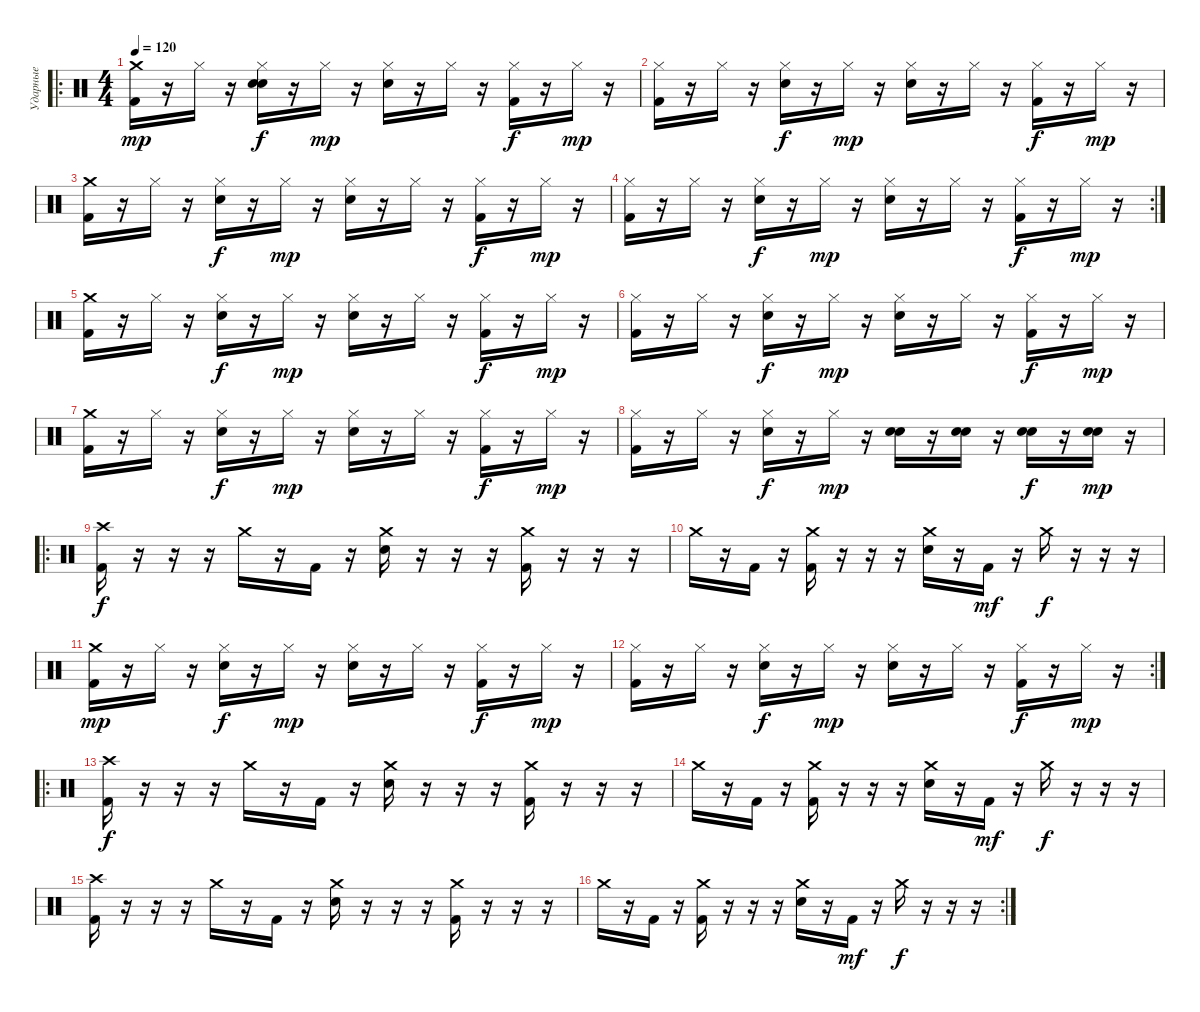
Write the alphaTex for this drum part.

\track ("Ударные" "Ударные") {instrument percussion}
\staff {score}
\articulation defaults
\ro
\ts (4 4)
\tempo 120
\clef neutral
\ks c
("Crash medium (hit)" "Kick (hit) 2").16{dy mp} r.16 "Hi-Hat (closed)".16 r.16 ("Hi-Hat (closed)" "Electric Snare (hit)" "Electric Snare (hit)").16{dy f} r.16 "Hi-Hat (closed)".16{dy mp} r.16 ("Hi-Hat (closed)" "Electric Snare (hit)").16 r.16 "Hi-Hat (closed)".16 r.16 ("Hi-Hat (closed)" "Kick (hit) 2").16{dy f} r.16 "Hi-Hat (closed)".16{dy mp} r.16 |
("Hi-Hat (closed)" "Kick (hit) 2").16 r.16 "Hi-Hat (closed)".16 r.16 ("Hi-Hat (closed)" "Electric Snare (hit)").16{dy f} r.16 "Hi-Hat (closed)".16{dy mp} r.16 ("Hi-Hat (closed)" "Electric Snare (hit)").16 r.16 "Hi-Hat (closed)".16 r.16 ("Hi-Hat (closed)" "Kick (hit) 2").16{dy f} r.16 "Hi-Hat (closed)".16{dy mp} r.16 |
("Crash medium (hit)" "Kick (hit) 2").16 r.16 "Hi-Hat (closed)".16 r.16 ("Hi-Hat (closed)" "Electric Snare (hit)").16{dy f} r.16 "Hi-Hat (closed)".16{dy mp} r.16 ("Hi-Hat (closed)" "Electric Snare (hit)").16 r.16 "Hi-Hat (closed)".16 r.16 ("Hi-Hat (closed)" "Kick (hit) 2").16{dy f} r.16 "Hi-Hat (closed)".16{dy mp} r.16 |
\rc 2
("Hi-Hat (closed)" "Kick (hit) 2").16 r.16 "Hi-Hat (closed)".16 r.16 ("Hi-Hat (closed)" "Electric Snare (hit)").16{dy f} r.16 "Hi-Hat (closed)".16{dy mp} r.16 ("Hi-Hat (closed)" "Electric Snare (hit)").16 r.16 "Hi-Hat (closed)".16 r.16 ("Hi-Hat (closed)" "Kick (hit) 2").16{dy f} r.16 "Hi-Hat (closed)".16{dy mp} r.16 |
("Crash medium (hit)" "Kick (hit) 2").16 r.16 "Hi-Hat (closed)".16 r.16 ("Hi-Hat (closed)" "Electric Snare (hit)").16{dy f} r.16 "Hi-Hat (closed)".16{dy mp} r.16 ("Hi-Hat (closed)" "Electric Snare (hit)").16 r.16 "Hi-Hat (closed)".16 r.16 ("Hi-Hat (closed)" "Kick (hit) 2").16{dy f} r.16 "Hi-Hat (closed)".16{dy mp} r.16 |
("Hi-Hat (closed)" "Kick (hit) 2").16 r.16 "Hi-Hat (closed)".16 r.16 ("Hi-Hat (closed)" "Electric Snare (hit)").16{dy f} r.16 "Hi-Hat (closed)".16{dy mp} r.16 ("Hi-Hat (closed)" "Electric Snare (hit)").16 r.16 "Hi-Hat (closed)".16 r.16 ("Hi-Hat (closed)" "Kick (hit) 2").16{dy f} r.16 "Hi-Hat (closed)".16{dy mp} r.16 |
("Crash medium (hit)" "Kick (hit) 2").16 r.16 "Hi-Hat (closed)".16 r.16 ("Hi-Hat (closed)" "Electric Snare (hit)").16{dy f} r.16 "Hi-Hat (closed)".16{dy mp} r.16 ("Hi-Hat (closed)" "Electric Snare (hit)").16 r.16 "Hi-Hat (closed)".16 r.16 ("Hi-Hat (closed)" "Kick (hit) 2").16{dy f} r.16 "Hi-Hat (closed)".16{dy mp} r.16 |
("Hi-Hat (closed)" "Kick (hit) 2").16 r.16 "Hi-Hat (closed)".16 r.16 ("Hi-Hat (closed)" "Electric Snare (hit)").16{dy f} r.16 "Hi-Hat (closed)".16{dy mp} r.16 ("Snare (hit) 2" "Electric Snare (hit)").16 r.16 ("Snare (hit) 2" "Electric Snare (hit)").16 r.16 ("Snare (hit) 2" "Electric Snare (hit)").16{dy f} r.16 ("Snare (hit) 2" "Electric Snare (hit)").16{dy mp} r.16 |
\ro
("Crash high (hit)" "Kick (hit) 2").16{dy f} r.16 r.16 r.16 "Crash medium (hit)".16 r.16 "Kick (hit) 2".16 r.16 ("Crash medium (hit)" "Electric Snare (hit)").16 r.16 r.16 r.16 ("Crash medium (hit)" "Kick (hit) 2").16 r.16 r.16 r.16 |
"Crash medium (hit)".16 r.16 "Kick (hit) 2".16 r.16 ("Crash medium (hit)" "Kick (hit) 2").16 r.16 r.16 r.16 ("Crash medium (hit)" "Electric Snare (hit)").16 r.16 "Kick (hit) 2".16{dy mf} r.16 "Crash medium (hit)".16{dy f} r.16 r.16 r.16 |
("Crash medium (hit)" "Kick (hit) 2").16{dy mp} r.16 "Hi-Hat (closed)".16 r.16 ("Hi-Hat (closed)" "Electric Snare (hit)").16{dy f} r.16 "Hi-Hat (closed)".16{dy mp} r.16 ("Hi-Hat (closed)" "Electric Snare (hit)").16 r.16 "Hi-Hat (closed)".16 r.16 ("Hi-Hat (closed)" "Kick (hit) 2").16{dy f} r.16 "Hi-Hat (closed)".16{dy mp} r.16 |
\rc 2
("Hi-Hat (closed)" "Kick (hit) 2").16 r.16 "Hi-Hat (closed)".16 r.16 ("Hi-Hat (closed)" "Electric Snare (hit)").16{dy f} r.16 "Hi-Hat (closed)".16{dy mp} r.16 ("Hi-Hat (closed)" "Electric Snare (hit)").16 r.16 "Hi-Hat (closed)".16 r.16 ("Hi-Hat (closed)" "Kick (hit) 2").16{dy f} r.16 "Hi-Hat (closed)".16{dy mp} r.16 |
\ro
("Crash high (hit)" "Kick (hit) 2").16{dy f} r.16 r.16 r.16 "Crash medium (hit)".16 r.16 "Kick (hit) 2".16 r.16 ("Crash medium (hit)" "Electric Snare (hit)").16 r.16 r.16 r.16 ("Crash medium (hit)" "Kick (hit) 2").16 r.16 r.16 r.16 |
"Crash medium (hit)".16 r.16 "Kick (hit) 2".16 r.16 ("Crash medium (hit)" "Kick (hit) 2").16 r.16 r.16 r.16 ("Crash medium (hit)" "Electric Snare (hit)").16 r.16 "Kick (hit) 2".16{dy mf} r.16 "Crash medium (hit)".16{dy f} r.16 r.16 r.16 |
("Crash high (hit)" "Kick (hit) 2").16 r.16 r.16 r.16 "Crash medium (hit)".16 r.16 "Kick (hit) 2".16 r.16 ("Crash medium (hit)" "Electric Snare (hit)").16 r.16 r.16 r.16 ("Crash medium (hit)" "Kick (hit) 2").16 r.16 r.16 r.16 |
\rc 2 "Crash medium (hit)".16
r.16 "Kick (hit) 2".16 r.16 ("Crash medium (hit)" "Kick (hit) 2").16 r.16 r.16 r.16 ("Crash medium (hit)" "Electric Snare (hit)").16 r.16 "Kick (hit) 2".16{dy mf} r.16 "Crash medium (hit)".16{dy f} r.16 r.16 r.16
